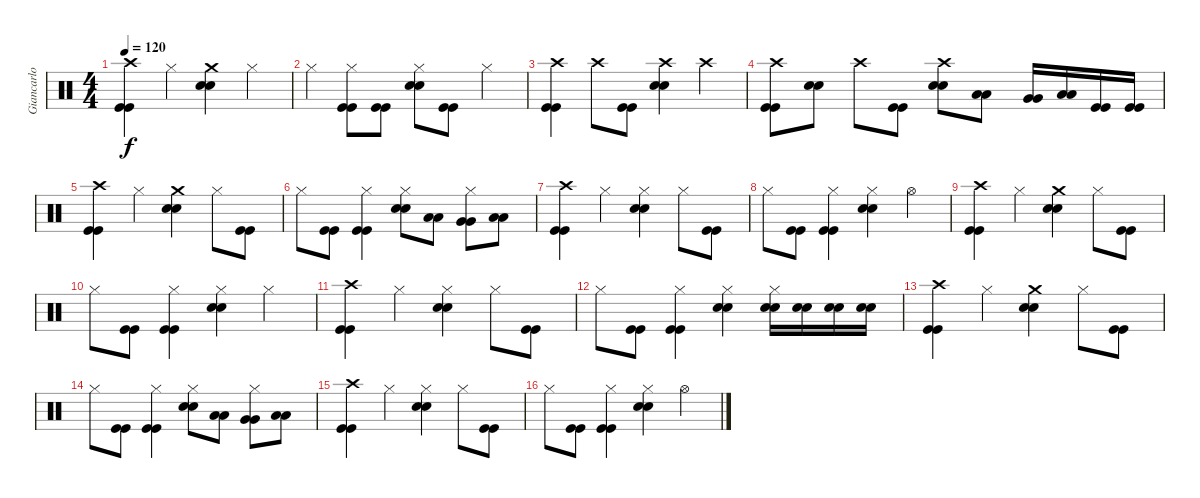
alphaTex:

\track ("Giancarlo Autenzio - Drums" "Giancarlo ") {instrument percussion}
\staff {score}
\articulation defaults
\ts (4 4)
\tempo 120
\clef neutral
\ks c
("Kick (hit)" "Kick (hit)" "Crash high (hit)").4{dy f} "Hi-Hat (closed)".4 ("Electric Snare (hit)" "Electric Snare (hit)" "Crash medium (hit)").4 "Hi-Hat (closed)".4 |
"Hi-Hat (closed)".4 ("Kick (hit)" "Kick (hit)" "Hi-Hat (closed)").8 ("Kick (hit)" "Kick (hit)").8 ("Electric Snare (hit)" "Electric Snare (hit)" "Hi-Hat (closed)").8 ("Kick (hit)" "Kick (hit)").8 "Hi-Hat (closed)".4 |
("Kick (hit)" "Kick (hit)" "Crash high (hit)").4 "Crash high (hit)".8 ("Kick (hit)" "Kick (hit)").8 ("Electric Snare (hit)" "Electric Snare (hit)" "Crash high (hit)").4 "Crash high (hit)".4 |
("Kick (hit)" "Kick (hit)" "Crash high (hit)").8 ("Electric Snare (hit)" "Electric Snare (hit)").8 "Crash high (hit)".8 ("Kick (hit)" "Kick (hit)").8 ("Electric Snare (hit)" "Electric Snare (hit)" "Crash high (hit)").8 ("Low Tom (hit)" "Low Tom (hit)").8 ("Very Low Tom (hit)" "Very Low Tom (hit)").16 ("Low Floor Tom (hit)" "Low Floor Tom (hit)").16 ("Kick (hit)" "Kick (hit)").16 ("Kick (hit)" "Kick (hit)").16 |
("Kick (hit)" "Kick (hit)" "Crash high (hit)").4 "Hi-Hat (closed)".4 ("Electric Snare (hit)" "Electric Snare (hit)" "Crash medium (hit)").4 "Hi-Hat (closed)".8 ("Kick (hit)" "Kick (hit)").8 |
"Hi-Hat (closed)".8 ("Kick (hit)" "Kick (hit)").8 ("Kick (hit)" "Kick (hit)" "Hi-Hat (closed)").4 ("Electric Snare (hit)" "Electric Snare (hit)" "Hi-Hat (closed)").8 ("Low Tom (hit)" "Low Tom (hit)").8 ("Very Low Tom (hit)" "Very Low Tom (hit)" "Hi-Hat (closed)").8 ("Low Floor Tom (hit)" "Low Floor Tom (hit)").8 |
("Kick (hit)" "Kick (hit)" "Crash high (hit)").4 "Hi-Hat (closed)".4 ("Electric Snare (hit)" "Electric Snare (hit)" "Hi-Hat (closed)").4 "Hi-Hat (closed)".8 ("Kick (hit)" "Kick (hit)").8 |
"Hi-Hat (closed)".8 ("Kick (hit)" "Kick (hit)").8 ("Kick (hit)" "Kick (hit)" "Hi-Hat (closed)").4 ("Electric Snare (hit)" "Electric Snare (hit)" "Hi-Hat (closed)").4 "Hi-Hat (open)".4 |
("Kick (hit)" "Kick (hit)" "Crash high (hit)").4 "Hi-Hat (closed)".4 ("Electric Snare (hit)" "Electric Snare (hit)" "Crash medium (hit)").4 "Hi-Hat (closed)".8 ("Kick (hit)" "Kick (hit)").8 |
"Hi-Hat (closed)".8 ("Kick (hit)" "Kick (hit)").8 ("Kick (hit)" "Kick (hit)" "Hi-Hat (closed)").4 ("Electric Snare (hit)" "Electric Snare (hit)" "Hi-Hat (closed)").4 "Hi-Hat (closed)".4 |
("Kick (hit)" "Kick (hit)" "Crash high (hit)").4 "Hi-Hat (closed)".4 ("Electric Snare (hit)" "Electric Snare (hit)" "Hi-Hat (closed)").4 "Hi-Hat (closed)".8 ("Kick (hit)" "Kick (hit)").8 |
"Hi-Hat (closed)".8 ("Kick (hit)" "Kick (hit)").8 ("Kick (hit)" "Kick (hit)" "Hi-Hat (closed)").4 ("Electric Snare (hit)" "Electric Snare (hit)" "Hi-Hat (closed)").4 ("Electric Snare (hit)" "Electric Snare (hit)" "Hi-Hat (closed)").16 ("Electric Snare (hit)" "Electric Snare (hit)").16 ("Electric Snare (hit)" "Electric Snare (hit)").16 ("Electric Snare (hit)" "Electric Snare (hit)").16 |
("Kick (hit)" "Kick (hit)" "Crash high (hit)").4 "Hi-Hat (closed)".4 ("Electric Snare (hit)" "Electric Snare (hit)" "Crash medium (hit)").4 "Hi-Hat (closed)".8 ("Kick (hit)" "Kick (hit)").8 |
"Hi-Hat (closed)".8 ("Kick (hit)" "Kick (hit)").8 ("Kick (hit)" "Kick (hit)" "Hi-Hat (closed)").4 ("Electric Snare (hit)" "Electric Snare (hit)" "Hi-Hat (closed)").8 ("Low Tom (hit)" "Low Tom (hit)").8 ("Very Low Tom (hit)" "Very Low Tom (hit)" "Hi-Hat (closed)").8 ("Low Floor Tom (hit)" "Low Floor Tom (hit)").8 |
("Kick (hit)" "Kick (hit)" "Crash high (hit)").4 "Hi-Hat (closed)".4 ("Electric Snare (hit)" "Electric Snare (hit)" "Hi-Hat (closed)").4 "Hi-Hat (closed)".8 ("Kick (hit)" "Kick (hit)").8 |
"Hi-Hat (closed)".8 ("Kick (hit)" "Kick (hit)").8 ("Kick (hit)" "Kick (hit)" "Hi-Hat (closed)").4 ("Electric Snare (hit)" "Electric Snare (hit)" "Hi-Hat (closed)").4 "Hi-Hat (open)".4
